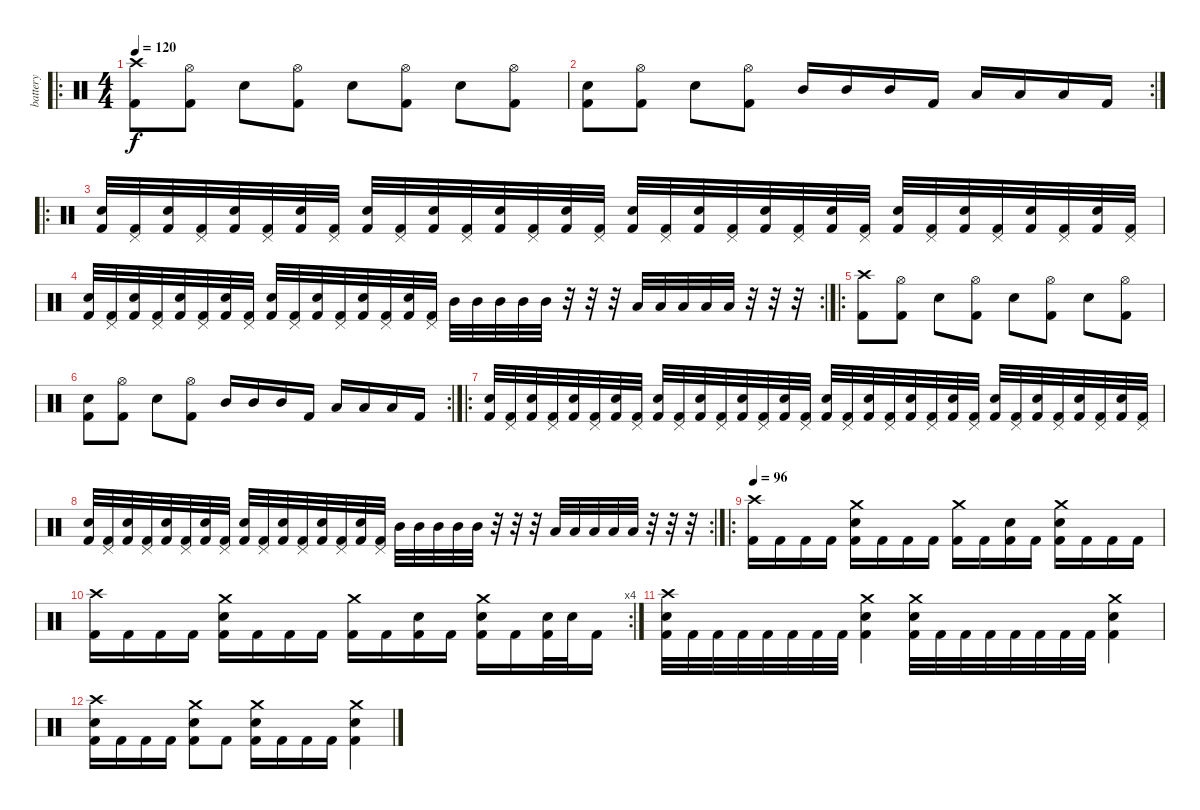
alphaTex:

\track ("battery" "battery") {instrument percussion}
\staff {score}
\articulation defaults
\ro
\ts (4 4)
\tempo 120
\clef neutral
\ks c
("Crash high (hit)" "Kick (hit) 2").8{dy f} ("Hi-Hat (open)" "Kick (hit) 2").8 "Snare (hit) 2".8 ("Hi-Hat (open)" "Kick (hit) 2").8 "Snare (hit) 2".8 ("Hi-Hat (open)" "Kick (hit) 2").8 "Snare (hit) 2".8 ("Hi-Hat (open)" "Kick (hit) 2").8 |
\rc 2
("Snare (hit) 2" "Kick (hit) 2").8 ("Hi-Hat (open)" "Kick (hit) 2").8 "Snare (hit) 2".8 ("Hi-Hat (open)" "Kick (hit) 2").8 "Mid Tom (hit)".16 "Mid Tom (hit)".16 "Mid Tom (hit)".16 "Kick (hit) 2".16 "Low Tom (hit)".16 "Low Tom (hit)".16 "Low Tom (hit)".16 "Kick (hit) 2".16 |
\ro
("Snare (hit) 2" "Kick (hit) 2").32 ("Pedal Hi-Hat (hit)" "Kick (hit) 2").32 ("Snare (hit) 2" "Kick (hit) 2").32 ("Pedal Hi-Hat (hit)" "Kick (hit) 2").32 ("Snare (hit) 2" "Kick (hit) 2").32 ("Pedal Hi-Hat (hit)" "Kick (hit) 2").32 ("Snare (hit) 2" "Kick (hit) 2").32 ("Pedal Hi-Hat (hit)" "Kick (hit) 2").32 ("Snare (hit) 2" "Kick (hit) 2").32 ("Pedal Hi-Hat (hit)" "Kick (hit) 2").32 ("Snare (hit) 2" "Kick (hit) 2").32 ("Pedal Hi-Hat (hit)" "Kick (hit) 2").32 ("Snare (hit) 2" "Kick (hit) 2").32 ("Pedal Hi-Hat (hit)" "Kick (hit) 2").32 ("Snare (hit) 2" "Kick (hit) 2").32 ("Pedal Hi-Hat (hit)" "Kick (hit) 2").32 ("Snare (hit) 2" "Kick (hit) 2").32 ("Pedal Hi-Hat (hit)" "Kick (hit) 2").32 ("Snare (hit) 2" "Kick (hit) 2").32 ("Pedal Hi-Hat (hit)" "Kick (hit) 2").32 ("Snare (hit) 2" "Kick (hit) 2").32 ("Pedal Hi-Hat (hit)" "Kick (hit) 2").32 ("Snare (hit) 2" "Kick (hit) 2").32 ("Pedal Hi-Hat (hit)" "Kick (hit) 2").32 ("Snare (hit) 2" "Kick (hit) 2").32 ("Pedal Hi-Hat (hit)" "Kick (hit) 2").32 ("Snare (hit) 2" "Kick (hit) 2").32 ("Pedal Hi-Hat (hit)" "Kick (hit) 2").32 ("Snare (hit) 2" "Kick (hit) 2").32 ("Pedal Hi-Hat (hit)" "Kick (hit) 2").32 ("Snare (hit) 2" "Kick (hit) 2").32 ("Pedal Hi-Hat (hit)" "Kick (hit) 2").32 |
\rc 2
("Snare (hit) 2" "Kick (hit) 2").32 ("Pedal Hi-Hat (hit)" "Kick (hit) 2").32 ("Snare (hit) 2" "Kick (hit) 2").32 ("Pedal Hi-Hat (hit)" "Kick (hit) 2").32 ("Snare (hit) 2" "Kick (hit) 2").32 ("Pedal Hi-Hat (hit)" "Kick (hit) 2").32 ("Snare (hit) 2" "Kick (hit) 2").32 ("Pedal Hi-Hat (hit)" "Kick (hit) 2").32 ("Snare (hit) 2" "Kick (hit) 2").32 ("Pedal Hi-Hat (hit)" "Kick (hit) 2").32 ("Snare (hit) 2" "Kick (hit) 2").32 ("Pedal Hi-Hat (hit)" "Kick (hit) 2").32 ("Snare (hit) 2" "Kick (hit) 2").32 ("Pedal Hi-Hat (hit)" "Kick (hit) 2").32 ("Snare (hit) 2" "Kick (hit) 2").32 ("Pedal Hi-Hat (hit)" "Kick (hit) 2").32 "Mid Tom (hit)".32 "Mid Tom (hit)".32 "Mid Tom (hit)".32 "Mid Tom (hit)".32 "Mid Tom (hit)".32 r.32 r.32 r.32 "Low Tom (hit)".32 "Low Tom (hit)".32 "Low Tom (hit)".32 "Low Tom (hit)".32 "Low Tom (hit)".32 r.32 r.32 r.32 |
\ro
("Crash high (hit)" "Kick (hit) 2").8 ("Hi-Hat (open)" "Kick (hit) 2").8 "Snare (hit) 2".8 ("Hi-Hat (open)" "Kick (hit) 2").8 "Snare (hit) 2".8 ("Hi-Hat (open)" "Kick (hit) 2").8 "Snare (hit) 2".8 ("Hi-Hat (open)" "Kick (hit) 2").8 |
\rc 2
("Snare (hit) 2" "Kick (hit) 2").8 ("Hi-Hat (open)" "Kick (hit) 2").8 "Snare (hit) 2".8 ("Hi-Hat (open)" "Kick (hit) 2").8 "Mid Tom (hit)".16 "Mid Tom (hit)".16 "Mid Tom (hit)".16 "Kick (hit) 2".16 "Low Tom (hit)".16 "Low Tom (hit)".16 "Low Tom (hit)".16 "Kick (hit) 2".16 |
\ro
("Snare (hit) 2" "Kick (hit) 2").32 ("Pedal Hi-Hat (hit)" "Kick (hit) 2").32 ("Snare (hit) 2" "Kick (hit) 2").32 ("Pedal Hi-Hat (hit)" "Kick (hit) 2").32 ("Snare (hit) 2" "Kick (hit) 2").32 ("Pedal Hi-Hat (hit)" "Kick (hit) 2").32 ("Snare (hit) 2" "Kick (hit) 2").32 ("Pedal Hi-Hat (hit)" "Kick (hit) 2").32 ("Snare (hit) 2" "Kick (hit) 2").32 ("Pedal Hi-Hat (hit)" "Kick (hit) 2").32 ("Snare (hit) 2" "Kick (hit) 2").32 ("Pedal Hi-Hat (hit)" "Kick (hit) 2").32 ("Snare (hit) 2" "Kick (hit) 2").32 ("Pedal Hi-Hat (hit)" "Kick (hit) 2").32 ("Snare (hit) 2" "Kick (hit) 2").32 ("Pedal Hi-Hat (hit)" "Kick (hit) 2").32 ("Snare (hit) 2" "Kick (hit) 2").32 ("Pedal Hi-Hat (hit)" "Kick (hit) 2").32 ("Snare (hit) 2" "Kick (hit) 2").32 ("Pedal Hi-Hat (hit)" "Kick (hit) 2").32 ("Snare (hit) 2" "Kick (hit) 2").32 ("Pedal Hi-Hat (hit)" "Kick (hit) 2").32 ("Snare (hit) 2" "Kick (hit) 2").32 ("Pedal Hi-Hat (hit)" "Kick (hit) 2").32 ("Snare (hit) 2" "Kick (hit) 2").32 ("Pedal Hi-Hat (hit)" "Kick (hit) 2").32 ("Snare (hit) 2" "Kick (hit) 2").32 ("Pedal Hi-Hat (hit)" "Kick (hit) 2").32 ("Snare (hit) 2" "Kick (hit) 2").32 ("Pedal Hi-Hat (hit)" "Kick (hit) 2").32 ("Snare (hit) 2" "Kick (hit) 2").32 ("Pedal Hi-Hat (hit)" "Kick (hit) 2").32 |
\rc 2
("Snare (hit) 2" "Kick (hit) 2").32 ("Pedal Hi-Hat (hit)" "Kick (hit) 2").32 ("Snare (hit) 2" "Kick (hit) 2").32 ("Pedal Hi-Hat (hit)" "Kick (hit) 2").32 ("Snare (hit) 2" "Kick (hit) 2").32 ("Pedal Hi-Hat (hit)" "Kick (hit) 2").32 ("Snare (hit) 2" "Kick (hit) 2").32 ("Pedal Hi-Hat (hit)" "Kick (hit) 2").32 ("Snare (hit) 2" "Kick (hit) 2").32 ("Pedal Hi-Hat (hit)" "Kick (hit) 2").32 ("Snare (hit) 2" "Kick (hit) 2").32 ("Pedal Hi-Hat (hit)" "Kick (hit) 2").32 ("Snare (hit) 2" "Kick (hit) 2").32 ("Pedal Hi-Hat (hit)" "Kick (hit) 2").32 ("Snare (hit) 2" "Kick (hit) 2").32 ("Pedal Hi-Hat (hit)" "Kick (hit) 2").32 "Mid Tom (hit)".32 "Mid Tom (hit)".32 "Mid Tom (hit)".32 "Mid Tom (hit)".32 "Mid Tom (hit)".32 r.32 r.32 r.32 "Low Tom (hit)".32 "Low Tom (hit)".32 "Low Tom (hit)".32 "Low Tom (hit)".32 "Low Tom (hit)".32 r.32 r.32 r.32 |
\ro
\tempo 96
("Crash high (hit)" "Kick (hit) 2").16 "Kick (hit) 2".16 "Kick (hit) 2".16 "Kick (hit) 2".16 ("Crash medium (hit)" "Snare (hit) 2" "Kick (hit) 2").16 "Kick (hit) 2".16 "Kick (hit) 2".16 "Kick (hit) 2".16 ("Crash medium (hit)" "Kick (hit) 2").16 "Kick (hit) 2".16 ("Snare (hit) 2" "Kick (hit) 2").16 "Kick (hit) 2".16 ("Crash medium (hit)" "Snare (hit) 2" "Kick (hit) 2").16 "Kick (hit) 2".16 "Kick (hit) 2".16 "Kick (hit) 2".16 |
\rc 4
("Crash high (hit)" "Kick (hit) 2").16 "Kick (hit) 2".16 "Kick (hit) 2".16 "Kick (hit) 2".16 ("Crash medium (hit)" "Snare (hit) 2" "Kick (hit) 2").16 "Kick (hit) 2".16 "Kick (hit) 2".16 "Kick (hit) 2".16 ("Crash medium (hit)" "Kick (hit) 2").16 "Kick (hit) 2".16 ("Snare (hit) 2" "Kick (hit) 2").16 "Kick (hit) 2".16 ("Crash medium (hit)" "Snare (hit) 2" "Kick (hit) 2").16 "Kick (hit) 2".16 ("Snare (hit) 2" "Kick (hit) 2").32 "Snare (hit) 2".32 "Kick (hit) 2".16 |
("Snare (hit) 2" "Crash high (hit)" "Kick (hit) 2").32 "Kick (hit) 2".32 "Kick (hit) 2".32 "Kick (hit) 2".32 "Kick (hit) 2".32 "Kick (hit) 2".32 "Kick (hit) 2".32 "Kick (hit) 2".32 ("Snare (hit) 2" "Crash medium (hit)" "Kick (hit) 2").4 ("Snare (hit) 2" "Crash medium (hit)" "Kick (hit) 2").32 "Kick (hit) 2".32 "Kick (hit) 2".32 "Kick (hit) 2".32 "Kick (hit) 2".32 "Kick (hit) 2".32 "Kick (hit) 2".32 "Kick (hit) 2".32 ("Snare (hit) 2" "Crash medium (hit)" "Kick (hit) 2").4 |
("Snare (hit) 2" "Crash high (hit)" "Kick (hit) 2").16 "Kick (hit) 2".16 "Kick (hit) 2".16 "Kick (hit) 2".16 ("Snare (hit) 2" "Crash medium (hit)" "Kick (hit) 2").8 "Kick (hit) 2".8 ("Snare (hit) 2" "Crash medium (hit)" "Kick (hit) 2").16 "Kick (hit) 2".16 "Kick (hit) 2".16 "Kick (hit) 2".16 ("Snare (hit) 2" "Crash medium (hit)" "Kick (hit) 2").4
